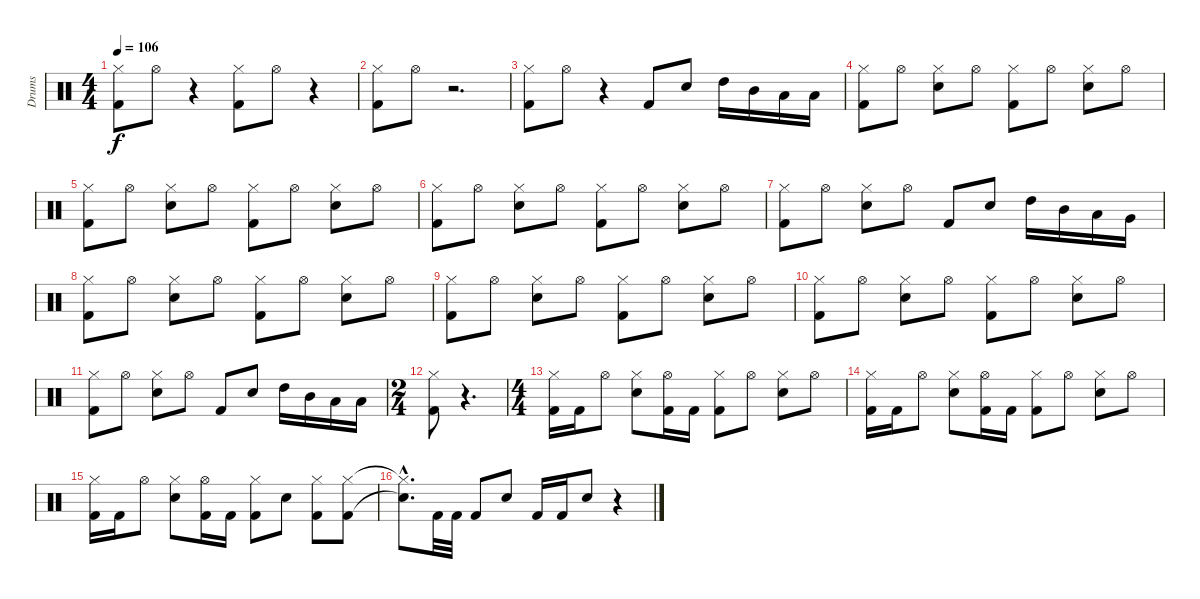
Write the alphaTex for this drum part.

\track ("Drums" "Drums") {instrument percussion}
\staff {score}
\articulation defaults
\ts (4 4)
\tempo 106
\clef neutral
\ks c
("Hi-Hat (closed)" "Kick (hit) 2").8{dy f} "Hi-Hat (open)".8 r.4 ("Hi-Hat (closed)" "Kick (hit) 2").8 "Hi-Hat (open)".8 r.4 |
("Hi-Hat (closed)" "Kick (hit) 2").8 "Hi-Hat (open)".8 r.2{d} |
("Hi-Hat (closed)" "Kick (hit) 2").8 "Hi-Hat (open)".8 r.4 "Kick (hit) 2".8 "Electric Snare (hit)".8 "High Tom (hit)".16 "Mid Tom (hit)".16 "Low Tom (hit)".16 "Low Tom (hit)".16 |
("Hi-Hat (closed)" "Kick (hit) 2").8 "Hi-Hat (open)".8 ("Hi-Hat (closed)" "Electric Snare (hit)").8 "Hi-Hat (open)".8 ("Hi-Hat (closed)" "Kick (hit) 2").8 "Hi-Hat (open)".8 ("Hi-Hat (closed)" "Electric Snare (hit)").8 "Hi-Hat (open)".8 |
("Hi-Hat (closed)" "Kick (hit) 2").8 "Hi-Hat (open)".8 ("Hi-Hat (closed)" "Electric Snare (hit)").8 "Hi-Hat (open)".8 ("Hi-Hat (closed)" "Kick (hit) 2").8 "Hi-Hat (open)".8 ("Hi-Hat (closed)" "Electric Snare (hit)").8 "Hi-Hat (open)".8 |
("Hi-Hat (closed)" "Kick (hit) 2").8 "Hi-Hat (open)".8 ("Hi-Hat (closed)" "Electric Snare (hit)").8 "Hi-Hat (open)".8 ("Hi-Hat (closed)" "Kick (hit) 2").8 "Hi-Hat (open)".8 ("Hi-Hat (closed)" "Electric Snare (hit)").8 "Hi-Hat (open)".8 |
("Hi-Hat (closed)" "Kick (hit) 2").8 "Hi-Hat (open)".8 ("Hi-Hat (closed)" "Electric Snare (hit)").8 "Hi-Hat (open)".8 "Kick (hit) 2".8 "Electric Snare (hit)".8 "High Tom (hit)".16 "Mid Tom (hit)".16 "Low Tom (hit)".16 "Very Low Tom (hit)".16 |
("Hi-Hat (closed)" "Kick (hit) 2").8 "Hi-Hat (open)".8 ("Hi-Hat (closed)" "Electric Snare (hit)").8 "Hi-Hat (open)".8 ("Hi-Hat (closed)" "Kick (hit) 2").8 "Hi-Hat (open)".8 ("Hi-Hat (closed)" "Electric Snare (hit)").8 "Hi-Hat (open)".8 |
("Hi-Hat (closed)" "Kick (hit) 2").8 "Hi-Hat (open)".8 ("Hi-Hat (closed)" "Electric Snare (hit)").8 "Hi-Hat (open)".8 ("Hi-Hat (closed)" "Kick (hit) 2").8 "Hi-Hat (open)".8 ("Hi-Hat (closed)" "Electric Snare (hit)").8 "Hi-Hat (open)".8 |
("Hi-Hat (closed)" "Kick (hit) 2").8 "Hi-Hat (open)".8 ("Hi-Hat (closed)" "Electric Snare (hit)").8 "Hi-Hat (open)".8 ("Hi-Hat (closed)" "Kick (hit) 2").8 "Hi-Hat (open)".8 ("Hi-Hat (closed)" "Electric Snare (hit)").8 "Hi-Hat (open)".8 |
("Hi-Hat (closed)" "Kick (hit) 2").8 "Hi-Hat (open)".8 ("Hi-Hat (closed)" "Electric Snare (hit)").8 "Hi-Hat (open)".8 "Kick (hit) 2".8 "Electric Snare (hit)".8 "High Tom (hit)".16 "Mid Tom (hit)".16 "Low Tom (hit)".16 "Low Tom (hit)".16 |
\ts (2 4)
("Hi-Hat (closed)" "Kick (hit) 2").8 r.4{d} |
\ts (4 4)
("Hi-Hat (closed)" "Kick (hit) 2").16 "Kick (hit) 2".16 "Hi-Hat (open)".8 ("Hi-Hat (closed)" "Electric Snare (hit)").8 ("Kick (hit) 2" "Hi-Hat (open)").16 "Kick (hit) 2".16 ("Hi-Hat (closed)" "Kick (hit) 2").8 "Hi-Hat (open)".8 ("Hi-Hat (closed)" "Electric Snare (hit)").8 "Hi-Hat (open)".8 |
("Hi-Hat (closed)" "Kick (hit) 2").16 "Kick (hit) 2".16 "Hi-Hat (open)".8 ("Hi-Hat (closed)" "Electric Snare (hit)").8 ("Kick (hit) 2" "Hi-Hat (open)").16 "Kick (hit) 2".16 ("Hi-Hat (closed)" "Kick (hit) 2").8 "Hi-Hat (open)".8 ("Hi-Hat (closed)" "Electric Snare (hit)").8 "Hi-Hat (open)".8 |
("Hi-Hat (closed)" "Kick (hit) 2").16 "Kick (hit) 2".16 "Hi-Hat (open)".8 ("Hi-Hat (closed)" "Electric Snare (hit)").8 ("Kick (hit) 2" "Hi-Hat (open)").16 "Kick (hit) 2".16 ("Hi-Hat (closed)" "Kick (hit) 2").8 "Electric Snare (hit)".8 ("Hi-Hat (closed)" "Kick (hit) 2").8 ("Hi-Hat (closed)" "Kick (hit) 2").8 |
("Hi-Hat (closed)"{hac t} "Electric Snare (hit)"{hac t}).8{d} "Kick (hit) 2".32 "Kick (hit) 2".32 "Kick (hit) 2".8 "Electric Snare (hit)".8 "Kick (hit) 2".16 "Kick (hit) 2".16 "Electric Snare (hit)".8 r.4
